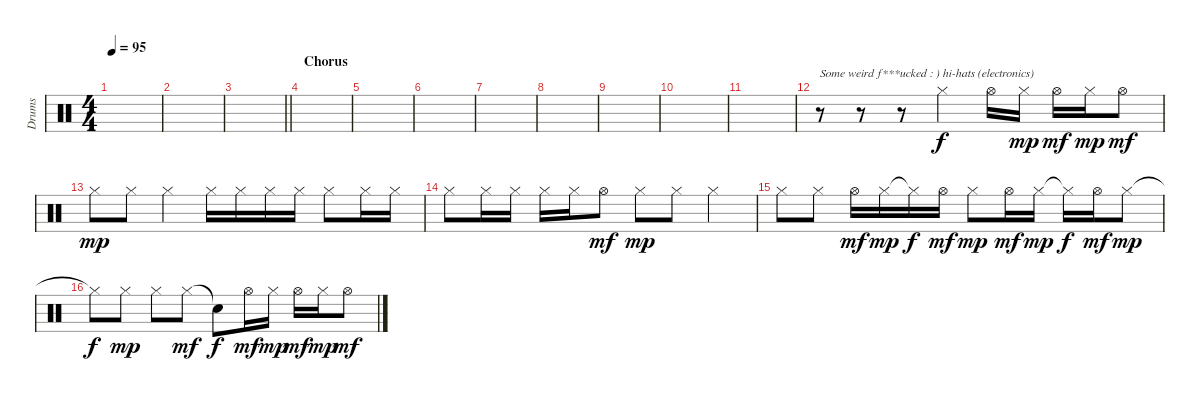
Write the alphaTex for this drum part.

\track ("Drums" "Drums") {instrument percussion}
\staff {score}
\articulation defaults
\ts (4 4)
\tempo 95
\clef neutral
\ks c
|
|
\barLineRight lightlight
|
\section ("" "Chorus")
|
|
|
|
|
|
|
|
r.8{txt "Some weird f***ucked : ) hi-hats (electronics)"} r.8 r.8 "Hi-Hat (closed)".4 "Hi-Hat (open)".16 "Hi-Hat (closed)".16{dy mp} "Hi-Hat (open)".16{dy mf} "Hi-Hat (closed)".16{dy mp} "Hi-Hat (open)".8{dy mf} |
"Hi-Hat (closed)".8{dy mp} "Hi-Hat (closed)".8 "Hi-Hat (closed)".4 "Hi-Hat (closed)".16 "Hi-Hat (closed)".16 "Hi-Hat (closed)".16 "Hi-Hat (closed)".16 "Hi-Hat (closed)".8 "Hi-Hat (closed)".16 "Hi-Hat (closed)".16 |
"Hi-Hat (closed)".8 "Hi-Hat (closed)".16 "Hi-Hat (closed)".16 "Hi-Hat (closed)".16 "Hi-Hat (closed)".16 "Hi-Hat (open)".8{dy mf} "Hi-Hat (closed)".8{dy mp} "Hi-Hat (closed)".8 "Hi-Hat (closed)".4 |
"Hi-Hat (closed)".8 "Hi-Hat (closed)".8 "Hi-Hat (open)".16{dy mf} "Hi-Hat (closed)".16{dy mp} "Hi-Hat (closed)"{t}.16{dy f} "Hi-Hat (open)".16{dy mf} "Hi-Hat (closed)".8{dy mp} "Hi-Hat (open)".16{dy mf} "Hi-Hat (closed)".16{dy mp} "Hi-Hat (closed)"{t}.16{dy f} "Hi-Hat (open)".16{dy mf} "Hi-Hat (closed)".8{dy mp} |
"Hi-Hat (closed)"{t}.8{dy f} "Hi-Hat (closed)".8{dy mp} "Hi-Hat (closed)".8 "Hi-Hat (closed)".8{dy mf} "Snare (hit)"{t}.8{dy f} "Hi-Hat (open)".16{dy mf} "Hi-Hat (closed)".16{dy mp} "Hi-Hat (open)".16{dy mf} "Hi-Hat (closed)".16{dy mp} "Hi-Hat (open)".8{dy mf}
